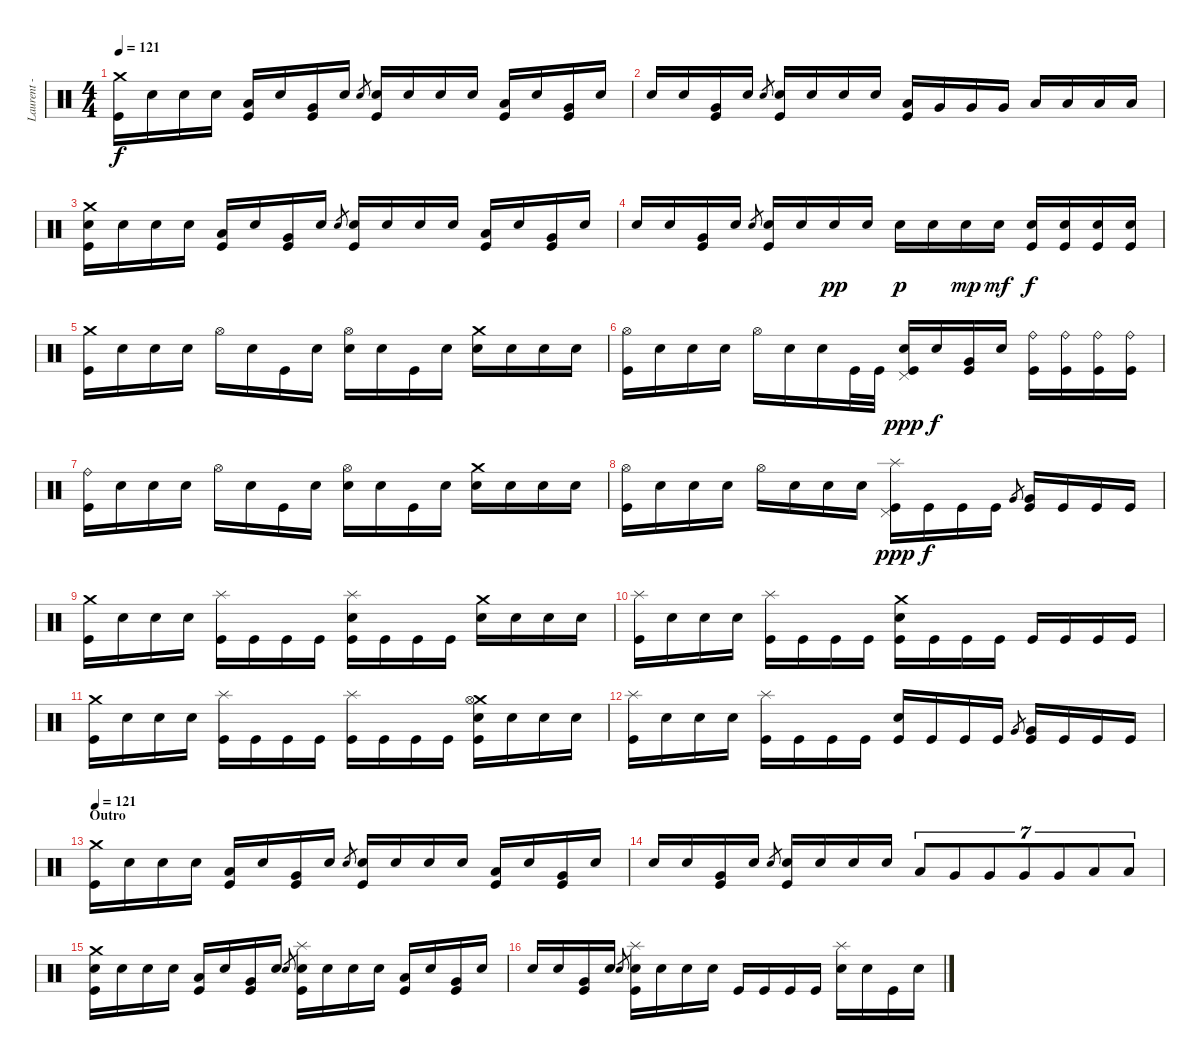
\track ("Laurent - Batterie" "Laurent - ") {instrument percussion}
\staff {score}
\articulation defaults
\ts (4 4)
\section ("" "")
\tempo 121
\clef neutral
\ks c
("Crash medium (hit)" "Kick (hit)").16{dy f} "Snare (hit)".16 "Snare (hit)".16 "Snare (hit)".16 ("Low Tom (hit)" "Kick (hit)").16 "Snare (hit)".16 ("Very Low Tom (hit)" "Kick (hit)").16 "Snare (hit)".16 "Electric Snare (hit)".8{gr} ("Electric Snare (hit)" "Kick (hit)").16 "Snare (hit)".16 "Snare (hit)".16 "Snare (hit)".16 ("Low Tom (hit)" "Kick (hit)").16 "Snare (hit)".16 ("Very Low Tom (hit)" "Kick (hit)").16 "Snare (hit)".16 |
"Snare (hit)".16 "Snare (hit)".16 ("Very Low Tom (hit)" "Kick (hit)").16 "Snare (hit)".16 "Electric Snare (hit)".8{gr} ("Electric Snare (hit)" "Kick (hit)").16 "Snare (hit)".16 "Snare (hit)".16 "Snare (hit)".16 ("Low Tom (hit)" "Kick (hit)").16 "Very Low Tom (hit)".16 "Very Low Tom (hit)".16 "Very Low Tom (hit)".16 "Low Floor Tom (hit)".16 "Low Floor Tom (hit)".16 "Low Floor Tom (hit)".16 "Low Floor Tom (hit)".16 |
("Crash medium (hit)" "Electric Snare (hit)" "Kick (hit)").16 "Snare (hit)".16 "Snare (hit)".16 "Snare (hit)".16 ("Low Tom (hit)" "Kick (hit)").16 "Snare (hit)".16 ("Very Low Tom (hit)" "Kick (hit)").16 "Snare (hit)".16 "Electric Snare (hit)".8{gr} ("Electric Snare (hit)" "Kick (hit)").16 "Snare (hit)".16 "Snare (hit)".16 "Snare (hit)".16 ("Low Tom (hit)" "Kick (hit)").16 "Snare (hit)".16 ("Very Low Tom (hit)" "Kick (hit)").16 "Snare (hit)".16 |
"Snare (hit)".16 "Snare (hit)".16 ("Very Low Tom (hit)" "Kick (hit)").16 "Snare (hit)".16 "Electric Snare (hit)".8{gr} ("Electric Snare (hit)" "Kick (hit)").16 "Snare (hit)".16 "Electric Snare (hit)".16{dy pp} "Electric Snare (hit)".16 "Electric Snare (hit)".16{dy p} "Electric Snare (hit)".16 "Electric Snare (hit)".16{dy mp} "Electric Snare (hit)".16{dy mf} ("Electric Snare (hit)" "Kick (hit)").16{dy f} ("Electric Snare (hit)" "Kick (hit)").16 ("Electric Snare (hit)" "Kick (hit)").16 ("Electric Snare (hit)" "Kick (hit)").16 |
("Crash medium (hit)" "Kick (hit)").16 "Snare (hit)".16 "Snare (hit)".16 "Snare (hit)".16 "Hi-Hat (open)".16 "Snare (hit)".16 "Kick (hit)".16 "Snare (hit)".16 ("Hi-Hat (open)" "Electric Snare (hit)").16 "Snare (hit)".16 "Kick (hit)".16 "Snare (hit)".16 ("Crash medium (hit)" "Electric Snare (hit)").16 "Snare (hit)".16 "Snare (hit)".16 "Snare (hit)".16 |
("Hi-Hat (open)" "Kick (hit)").16 "Snare (hit)".16 "Electric Snare (hit)".16 "Snare (hit)".16 "Hi-Hat (open)".16 "Snare (hit)".16 "Snare (hit)".16 "Kick (hit)".32 "Kick (hit)".32 ("Pedal Hi-Hat (hit)" "Electric Snare (hit)" "Kick (hit)").16{dy ppp} "Snare (hit)".16{dy f} ("Very Low Tom (hit)" "Kick (hit)").16 "Snare (hit)".16 ("Ride (bell)" "Kick (hit)").16 ("Ride (bell)" "Kick (hit)").16 ("Ride (bell)" "Kick (hit)").16 ("Ride (bell)" "Kick (hit)").16 |
("Ride (bell)" "Kick (hit)").16 "Snare (hit)".16 "Snare (hit)".16 "Snare (hit)".16 "Hi-Hat (open)".16 "Snare (hit)".16 "Kick (hit)".16 "Snare (hit)".16 ("Hi-Hat (open)" "Electric Snare (hit)").16 "Snare (hit)".16 "Kick (hit)".16 "Snare (hit)".16 ("Crash medium (hit)" "Electric Snare (hit)").16 "Snare (hit)".16 "Snare (hit)".16 "Snare (hit)".16 |
("Hi-Hat (open)" "Kick (hit)").16 "Snare (hit)".16 "Electric Snare (hit)".16 "Snare (hit)".16 "Hi-Hat (open)".16 "Snare (hit)".16 "Snare (hit)".16 "Snare (hit)".16 ("Splash (hit)" "Pedal Hi-Hat (hit)" "Kick (hit)").16{dy ppp} "Kick (hit)".16{dy f} "Kick (hit)".16 "Kick (hit)".16 "Very Low Tom (hit)".8{gr} ("Very Low Tom (hit)" "Kick (hit)").16 "Kick (hit)".16 "Kick (hit)".16 "Kick (hit)".16 |
\section ("" "")
("Crash medium (hit)" "Kick (hit)").16 "Snare (hit)".16 "Snare (hit)".16 "Snare (hit)".16 ("Splash (hit)" "Kick (hit)").16 "Kick (hit)".16 "Kick (hit)".16 "Kick (hit)".16 ("Splash (hit)" "Electric Snare (hit)" "Kick (hit)").16 "Kick (hit)".16 "Kick (hit)".16 "Kick (hit)".16 ("Crash medium (hit)" "Electric Snare (hit)").16 "Snare (hit)".16 "Snare (hit)".16 "Snare (hit)".16 |
("Splash (hit)" "Kick (hit)").16 "Snare (hit)".16 "Electric Snare (hit)".16 "Snare (hit)".16 ("Splash (hit)" "Kick (hit)").16 "Kick (hit)".16 "Kick (hit)".16 "Kick (hit)".16 ("Crash medium (hit)" "Electric Snare (hit)" "Kick (hit)").16 "Kick (hit)".16 "Kick (hit)".16 "Kick (hit)".16 "Kick (hit)".16 "Kick (hit)".16 "Kick (hit)".16 "Kick (hit)".16 |
("Crash medium (hit)" "Kick (hit)").16 "Snare (hit)".16 "Snare (hit)".16 "Snare (hit)".16 ("Splash (hit)" "Kick (hit)").16 "Kick (hit)".16 "Kick (hit)".16 "Kick (hit)".16 ("Splash (hit)" "Kick (hit)").16 "Kick (hit)".16 "Kick (hit)".16 "Kick (hit)".16 ("Crash medium (hit)" "Hi-Hat (open)" "Electric Snare (hit)" "Kick (hit)").16 "Snare (hit)".16 "Snare (hit)".16 "Snare (hit)".16 |
("Splash (hit)" "Kick (hit)").16 "Snare (hit)".16 "Electric Snare (hit)".16 "Snare (hit)".16 ("Splash (hit)" "Kick (hit)").16 "Kick (hit)".16 "Kick (hit)".16 "Kick (hit)".16 ("Electric Snare (hit)" "Kick (hit)").16 "Kick (hit)".16 "Kick (hit)".16 "Kick (hit)".16 "Very Low Tom (hit)".8{gr} ("Very Low Tom (hit)" "Kick (hit)").16 "Kick (hit)".16 "Kick (hit)".16 "Kick (hit)".16 |
\section ("" "Outro")
\tempo 121
("Crash medium (hit)" "Kick (hit)").16{volume 16 balance 8} "Snare (hit)".16 "Snare (hit)".16 "Snare (hit)".16 ("Low Tom (hit)" "Kick (hit)").16 "Snare (hit)".16 ("Very Low Tom (hit)" "Kick (hit)").16 "Snare (hit)".16 "Electric Snare (hit)".8{gr} ("Electric Snare (hit)" "Kick (hit)").16 "Snare (hit)".16 "Snare (hit)".16 "Snare (hit)".16 ("Low Tom (hit)" "Kick (hit)").16 "Snare (hit)".16 ("Very Low Tom (hit)" "Kick (hit)").16 "Snare (hit)".16 |
"Snare (hit)".16 "Snare (hit)".16 ("Very Low Tom (hit)" "Kick (hit)").16 "Snare (hit)".16 "Electric Snare (hit)".8{gr} ("Electric Snare (hit)" "Kick (hit)").16 "Snare (hit)".16 "Snare (hit)".16 "Snare (hit)".16 "Low Tom (hit)".8{tu (7 4)} "Very Low Tom (hit)".8{tu (7 4)} "Very Low Tom (hit)".8{tu (7 4)} "Very Low Tom (hit)".8{tu (7 4)} "Very Low Tom (hit)".8{tu (7 4)} "Low Floor Tom (hit)".8{tu (7 4)} "Low Floor Tom (hit)".8{tu (7 4)} |
("Crash medium (hit)" "Electric Snare (hit)" "Kick (hit)").16 "Snare (hit)".16 "Snare (hit)".16 "Snare (hit)".16 ("Low Tom (hit)" "Kick (hit)").16 "Snare (hit)".16 ("Very Low Tom (hit)" "Kick (hit)").16 "Snare (hit)".16 "Electric Snare (hit)".8{gr} ("Splash (hit)" "Electric Snare (hit)" "Kick (hit)").16 "Snare (hit)".16 "Snare (hit)".16 "Snare (hit)".16 ("Low Tom (hit)" "Kick (hit)").16 "Snare (hit)".16 ("Very Low Tom (hit)" "Kick (hit)").16 "Snare (hit)".16 |
"Snare (hit)".16 "Snare (hit)".16 ("Very Low Tom (hit)" "Kick (hit)").16 "Snare (hit)".16 "Electric Snare (hit)".8{gr} ("Splash (hit)" "Electric Snare (hit)" "Kick (hit)").16 "Snare (hit)".16 "Snare (hit)".16 "Snare (hit)".16 "Kick (hit)".16 "Kick (hit)".16 "Kick (hit)".16 "Kick (hit)".16 ("Splash (hit)" "Electric Snare (hit)").16 "Snare (hit)".16 "Kick (hit)".16 "Snare (hit)".16
